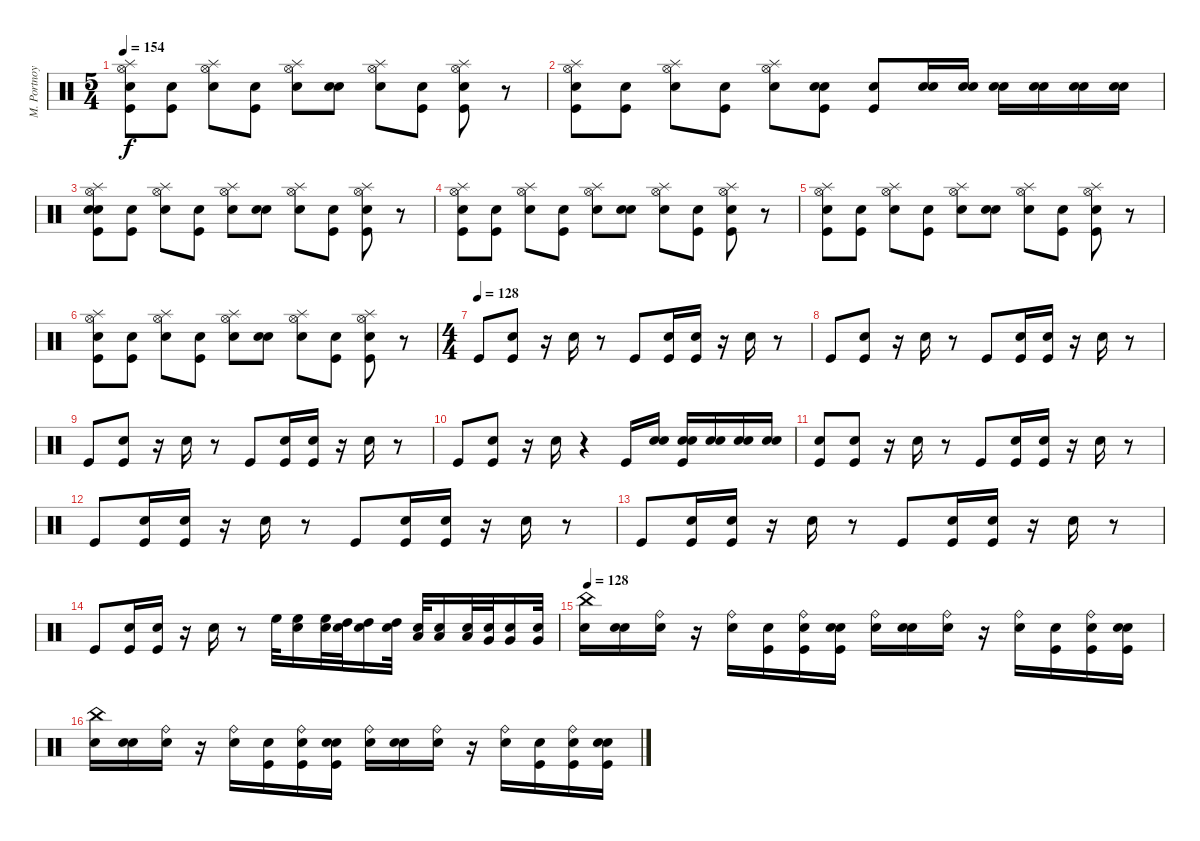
\track ("M. Portnoy" "M. Portnoy") {instrument percussion}
\staff {score}
\articulation defaults
\ts (5 4)
\tempo 154
\clef neutral
\ks c
("Kick (hit)" "Snare (hit) 2" "Hi-Hat (open)" "Splash (hit)").8{dy f} ("Snare (hit)" "Kick (hit)").8 ("Snare (hit)" "Hi-Hat (open)" "Splash (hit)").8 ("Snare (hit)" "Kick (hit)").8 ("Snare (hit)" "Hi-Hat (open)" "Splash (hit)").8 ("Snare (hit)" "Snare (hit) 2").8 ("Snare (hit)" "Hi-Hat (open)" "Splash (hit)").8 ("Snare (hit)" "Kick (hit)").8 ("Snare (hit)" "Kick (hit)" "Hi-Hat (open)" "Splash (hit)").8 r.8 |
("Kick (hit)" "Snare (hit) 2" "Hi-Hat (open)" "Splash (hit)").8 ("Snare (hit)" "Kick (hit)").8 ("Snare (hit)" "Hi-Hat (open)" "Splash (hit)").8 ("Snare (hit)" "Kick (hit)").8 ("Snare (hit)" "Hi-Hat (open)" "Splash (hit)").8 ("Snare (hit)" "Kick (hit)" "Snare (hit) 2").8 ("Snare (hit)" "Kick (hit)").8 ("Snare (hit)" "Snare (hit) 2").16 ("Snare (hit)" "Snare (hit) 2").16 ("Snare (hit)" "Snare (hit) 2").16 ("Snare (hit)" "Snare (hit) 2").16 ("Snare (hit)" "Snare (hit) 2").16 ("Snare (hit)" "Snare (hit) 2").16 |
("Snare (hit)" "Kick (hit)" "Snare (hit) 2" "Hi-Hat (open)" "Splash (hit)").8 ("Snare (hit)" "Kick (hit)").8 ("Snare (hit)" "Hi-Hat (open)" "Splash (hit)").8 ("Snare (hit)" "Kick (hit)").8 ("Snare (hit)" "Hi-Hat (open)" "Splash (hit)").8 ("Snare (hit)" "Snare (hit) 2").8 ("Snare (hit)" "Hi-Hat (open)" "Splash (hit)").8 ("Snare (hit)" "Kick (hit)").8 ("Snare (hit)" "Kick (hit)" "Hi-Hat (open)" "Splash (hit)").8 r.8 |
("Kick (hit)" "Snare (hit) 2" "Hi-Hat (open)" "Splash (hit)").8 ("Snare (hit)" "Kick (hit)").8 ("Snare (hit)" "Hi-Hat (open)" "Splash (hit)").8 ("Snare (hit)" "Kick (hit)").8 ("Snare (hit)" "Hi-Hat (open)" "Splash (hit)").8 ("Snare (hit)" "Snare (hit) 2").8 ("Snare (hit)" "Hi-Hat (open)" "Splash (hit)").8 ("Snare (hit)" "Kick (hit)").8 ("Snare (hit)" "Kick (hit)" "Hi-Hat (open)" "Splash (hit)").8 r.8 |
("Kick (hit)" "Snare (hit) 2" "Hi-Hat (open)" "Splash (hit)").8 ("Snare (hit)" "Kick (hit)").8 ("Snare (hit)" "Hi-Hat (open)" "Splash (hit)").8 ("Snare (hit)" "Kick (hit)").8 ("Snare (hit)" "Hi-Hat (open)" "Splash (hit)").8 ("Snare (hit)" "Snare (hit) 2").8 ("Snare (hit)" "Hi-Hat (open)" "Splash (hit)").8 ("Snare (hit)" "Kick (hit)").8 ("Snare (hit)" "Kick (hit)" "Hi-Hat (open)" "Splash (hit)").8 r.8 |
("Kick (hit)" "Snare (hit) 2" "Hi-Hat (open)" "Splash (hit)").8 ("Snare (hit)" "Kick (hit)").8 ("Snare (hit)" "Hi-Hat (open)" "Splash (hit)").8 ("Snare (hit)" "Kick (hit)").8 ("Snare (hit)" "Hi-Hat (open)" "Splash (hit)").8 ("Snare (hit)" "Snare (hit) 2").8 ("Snare (hit)" "Hi-Hat (open)" "Splash (hit)").8 ("Snare (hit)" "Kick (hit)").8 ("Snare (hit)" "Kick (hit)" "Hi-Hat (open)" "Splash (hit)").8 r.8 |
\ts (4 4)
\tempo (128)
"Kick (hit)".8 ("Snare (hit)" "Kick (hit)").8 r.16 "Snare (hit) 2".16 r.8 "Kick (hit)".8 ("Snare (hit)" "Kick (hit)").16 ("Snare (hit)" "Kick (hit)").16 r.16 "Snare (hit) 2".16 r.8 |
"Kick (hit)".8 ("Snare (hit)" "Kick (hit)").8 r.16 "Snare (hit) 2".16 r.8 "Kick (hit)".8 ("Snare (hit)" "Kick (hit)").16 ("Snare (hit)" "Kick (hit)").16 r.16 "Snare (hit) 2".16 r.8 |
"Kick (hit)".8 ("Snare (hit)" "Kick (hit)").8 r.16 "Snare (hit) 2".16 r.8 "Kick (hit)".8 ("Snare (hit)" "Kick (hit)").16 ("Snare (hit)" "Kick (hit)").16 r.16 "Snare (hit) 2".16 r.8 |
"Kick (hit)".8 ("Snare (hit)" "Kick (hit)").8 r.16 "Snare (hit) 2".16 r.4 "Kick (hit)".16 ("Snare (hit)" "Snare (hit) 2").16 ("Snare (hit)" "Kick (hit)" "Snare (hit) 2").16 ("Snare (hit)" "Snare (hit) 2").16 ("Snare (hit)" "Snare (hit) 2").16 ("Snare (hit)" "Snare (hit) 2").16 |
("Snare (hit)" "Kick (hit)").8 ("Snare (hit)" "Kick (hit)").8 r.16 "Snare (hit) 2".16 r.8 "Kick (hit)".8 ("Snare (hit)" "Kick (hit)").16 ("Snare (hit)" "Kick (hit)").16 r.16 "Snare (hit) 2".16 r.8 |
"Kick (hit)".8 ("Snare (hit)" "Kick (hit)").16 ("Snare (hit)" "Kick (hit)").16 r.16 "Snare (hit) 2".16 r.8 "Kick (hit)".8 ("Snare (hit)" "Kick (hit)").16 ("Snare (hit)" "Kick (hit)").16 r.16 "Snare (hit) 2".16 r.8 |
"Kick (hit)".8 ("Snare (hit)" "Kick (hit)").16 ("Snare (hit)" "Kick (hit)").16 r.16 "Snare (hit) 2".16 r.8 "Kick (hit)".8 ("Snare (hit)" "Kick (hit)").16 ("Snare (hit)" "Kick (hit)").16 r.16 "Snare (hit) 2".16 r.8 |
"Kick (hit)".8 ("Snare (hit)" "Kick (hit)").16 ("Snare (hit)" "Kick (hit)").16 r.16 "Snare (hit) 2".16 r.8 "High Floor Tom (hit)".32 ("Snare (hit)" "High Floor Tom (hit)").16 ("Snare (hit)" "High Floor Tom (hit)").32 ("Snare (hit)" "High Tom (hit)").32 ("Snare (hit)" "High Tom (hit)").16 ("Snare (hit)" "High Tom (hit)").32 ("Snare (hit)" "Low Tom (hit)").32 ("Snare (hit)" "Low Tom (hit)").16 ("Snare (hit)" "Low Tom (hit)").32 ("Snare (hit)" "Very Low Tom (hit)").32 ("Snare (hit)" "Very Low Tom (hit)").16 ("Snare (hit)" "Very Low Tom (hit)").32 |
\tempo 128
("Snare (hit)" "China (hit)").16 ("Snare (hit)" "Snare (hit) 2").16 ("Snare (hit)" "Ride (bell)").16 r.16 ("Snare (hit) 2" "Ride (bell)").16 ("Snare (hit)" "Kick (hit)").16 ("Snare (hit)" "Kick (hit)" "Ride (bell)").16 ("Snare (hit)" "Kick (hit)" "Snare (hit) 2").16 ("Snare (hit)" "Ride (bell)").16 ("Snare (hit)" "Snare (hit) 2").16 ("Snare (hit)" "Ride (bell)").16 r.16 ("Snare (hit) 2" "Ride (bell)").16 ("Snare (hit)" "Kick (hit)").16 ("Snare (hit)" "Kick (hit)" "Ride (bell)").16 ("Snare (hit)" "Kick (hit)" "Snare (hit) 2").16 |
("Snare (hit)" "China (hit)").16 ("Snare (hit)" "Snare (hit) 2").16 ("Snare (hit)" "Ride (bell)").16 r.16 ("Snare (hit) 2" "Ride (bell)").16 ("Snare (hit)" "Kick (hit)").16 ("Snare (hit)" "Kick (hit)" "Ride (bell)").16 ("Snare (hit)" "Kick (hit)" "Snare (hit) 2").16 ("Snare (hit)" "Ride (bell)").16 ("Snare (hit)" "Snare (hit) 2").16 ("Snare (hit)" "Ride (bell)").16 r.16 ("Snare (hit) 2" "Ride (bell)").16 ("Snare (hit)" "Kick (hit)").16 ("Snare (hit)" "Kick (hit)" "Ride (bell)").16 ("Snare (hit)" "Kick (hit)" "Snare (hit) 2").16
